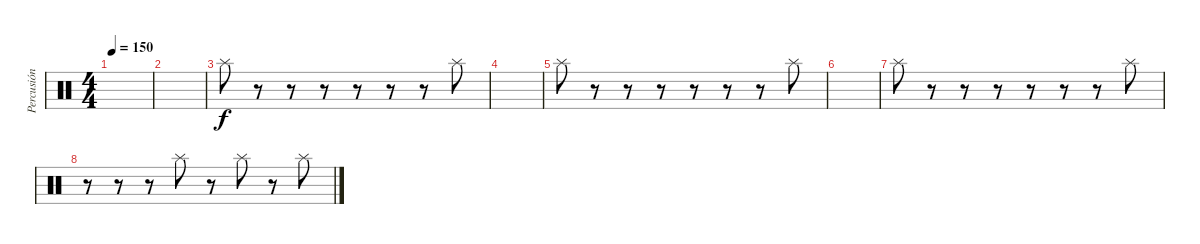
\track ("Percusión" "Percusión") {instrument percussion}
\staff {score}
\articulation defaults
\ts (4 4)
\tempo 150
\clef neutral
\ks c
|
|
"Splash (hit)".8 r.8 r.8 r.8 r.8 r.8 r.8 "Splash (hit)".8 |
|
"Splash (hit)".8 r.8 r.8 r.8 r.8 r.8 r.8 "Splash (hit)".8 |
|
"Splash (hit)".8 r.8 r.8 r.8 r.8 r.8 r.8 "Splash (hit)".8 |
r.8 r.8 r.8 "Splash (hit)".8 r.8 "Splash (hit)".8 r.8 "Splash (hit)".8
